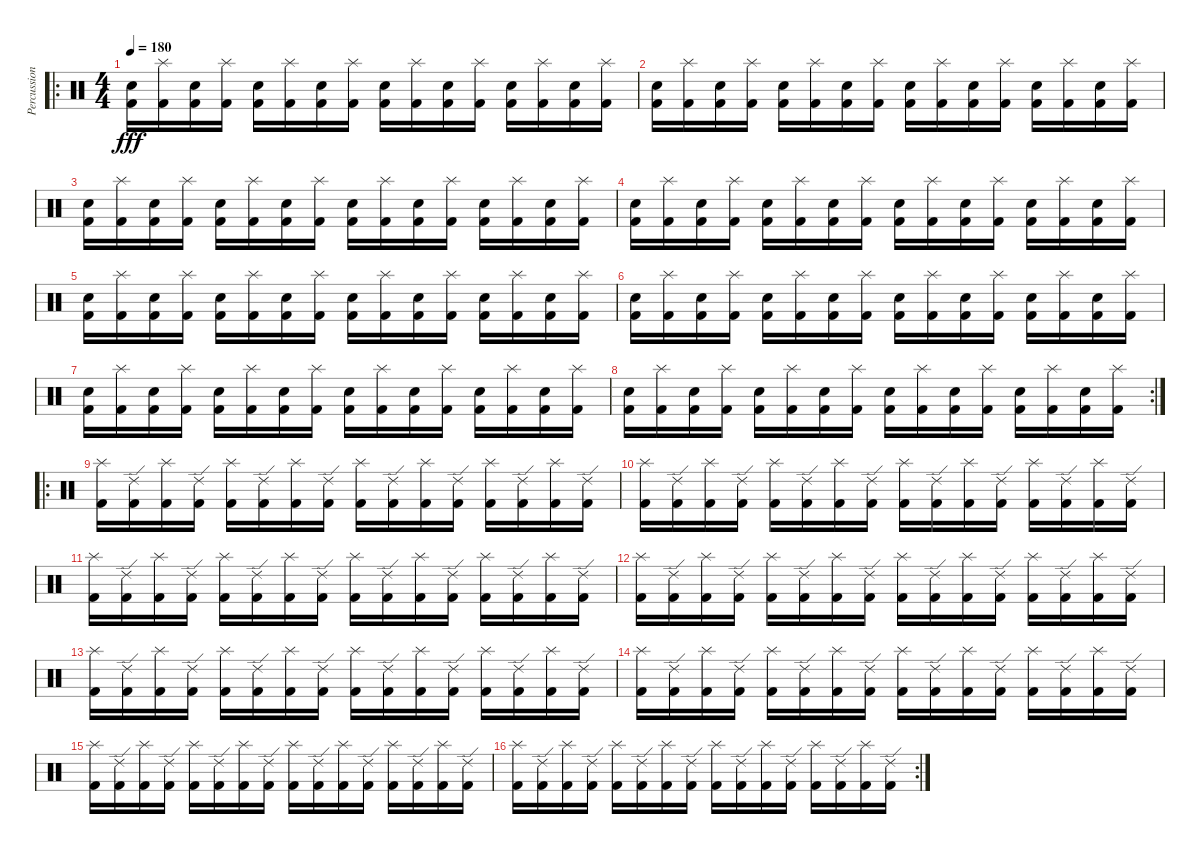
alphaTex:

\track ("Percussion" "Percussion") {instrument percussion}
\staff {score}
\articulation defaults
\ro
\ts (4 4)
\tempo 180
\clef neutral
\ks c
("Electric Snare (hit)" "Kick (hit) 2").16{dy fff} ("Splash (hit)" "Kick (hit) 2").16 ("Electric Snare (hit)" "Kick (hit) 2").16 ("Splash (hit)" "Kick (hit) 2").16 ("Electric Snare (hit)" "Kick (hit) 2").16 ("Splash (hit)" "Kick (hit) 2").16 ("Electric Snare (hit)" "Kick (hit) 2").16 ("Splash (hit)" "Kick (hit) 2").16 ("Electric Snare (hit)" "Kick (hit) 2").16 ("Splash (hit)" "Kick (hit) 2").16 ("Electric Snare (hit)" "Kick (hit) 2").16 ("Splash (hit)" "Kick (hit) 2").16 ("Electric Snare (hit)" "Kick (hit) 2").16 ("Splash (hit)" "Kick (hit) 2").16 ("Electric Snare (hit)" "Kick (hit) 2").16 ("Splash (hit)" "Kick (hit) 2").16 |
("Electric Snare (hit)" "Kick (hit) 2").16 ("Splash (hit)" "Kick (hit) 2").16 ("Electric Snare (hit)" "Kick (hit) 2").16 ("Splash (hit)" "Kick (hit) 2").16 ("Electric Snare (hit)" "Kick (hit) 2").16 ("Splash (hit)" "Kick (hit) 2").16 ("Electric Snare (hit)" "Kick (hit) 2").16 ("Splash (hit)" "Kick (hit) 2").16 ("Electric Snare (hit)" "Kick (hit) 2").16 ("Splash (hit)" "Kick (hit) 2").16 ("Electric Snare (hit)" "Kick (hit) 2").16 ("Splash (hit)" "Kick (hit) 2").16 ("Electric Snare (hit)" "Kick (hit) 2").16 ("Splash (hit)" "Kick (hit) 2").16 ("Electric Snare (hit)" "Kick (hit) 2").16 ("Splash (hit)" "Kick (hit) 2").16 |
("Electric Snare (hit)" "Kick (hit) 2").16 ("Splash (hit)" "Kick (hit) 2").16 ("Electric Snare (hit)" "Kick (hit) 2").16 ("Splash (hit)" "Kick (hit) 2").16 ("Electric Snare (hit)" "Kick (hit) 2").16 ("Splash (hit)" "Kick (hit) 2").16 ("Electric Snare (hit)" "Kick (hit) 2").16 ("Splash (hit)" "Kick (hit) 2").16 ("Electric Snare (hit)" "Kick (hit) 2").16 ("Splash (hit)" "Kick (hit) 2").16 ("Electric Snare (hit)" "Kick (hit) 2").16 ("Splash (hit)" "Kick (hit) 2").16 ("Electric Snare (hit)" "Kick (hit) 2").16 ("Splash (hit)" "Kick (hit) 2").16 ("Electric Snare (hit)" "Kick (hit) 2").16 ("Splash (hit)" "Kick (hit) 2").16 |
("Electric Snare (hit)" "Kick (hit) 2").16 ("Splash (hit)" "Kick (hit) 2").16 ("Electric Snare (hit)" "Kick (hit) 2").16 ("Splash (hit)" "Kick (hit) 2").16 ("Electric Snare (hit)" "Kick (hit) 2").16 ("Splash (hit)" "Kick (hit) 2").16 ("Electric Snare (hit)" "Kick (hit) 2").16 ("Splash (hit)" "Kick (hit) 2").16 ("Electric Snare (hit)" "Kick (hit) 2").16 ("Splash (hit)" "Kick (hit) 2").16 ("Electric Snare (hit)" "Kick (hit) 2").16 ("Splash (hit)" "Kick (hit) 2").16 ("Electric Snare (hit)" "Kick (hit) 2").16 ("Splash (hit)" "Kick (hit) 2").16 ("Electric Snare (hit)" "Kick (hit) 2").16 ("Splash (hit)" "Kick (hit) 2").16 |
("Electric Snare (hit)" "Kick (hit) 2").16 ("Splash (hit)" "Kick (hit) 2").16 ("Electric Snare (hit)" "Kick (hit) 2").16 ("Splash (hit)" "Kick (hit) 2").16 ("Electric Snare (hit)" "Kick (hit) 2").16 ("Splash (hit)" "Kick (hit) 2").16 ("Electric Snare (hit)" "Kick (hit) 2").16 ("Splash (hit)" "Kick (hit) 2").16 ("Electric Snare (hit)" "Kick (hit) 2").16 ("Splash (hit)" "Kick (hit) 2").16 ("Electric Snare (hit)" "Kick (hit) 2").16 ("Splash (hit)" "Kick (hit) 2").16 ("Electric Snare (hit)" "Kick (hit) 2").16 ("Splash (hit)" "Kick (hit) 2").16 ("Electric Snare (hit)" "Kick (hit) 2").16 ("Splash (hit)" "Kick (hit) 2").16 |
("Electric Snare (hit)" "Kick (hit) 2").16 ("Splash (hit)" "Kick (hit) 2").16 ("Electric Snare (hit)" "Kick (hit) 2").16 ("Splash (hit)" "Kick (hit) 2").16 ("Electric Snare (hit)" "Kick (hit) 2").16 ("Splash (hit)" "Kick (hit) 2").16 ("Electric Snare (hit)" "Kick (hit) 2").16 ("Splash (hit)" "Kick (hit) 2").16 ("Electric Snare (hit)" "Kick (hit) 2").16 ("Splash (hit)" "Kick (hit) 2").16 ("Electric Snare (hit)" "Kick (hit) 2").16 ("Splash (hit)" "Kick (hit) 2").16 ("Electric Snare (hit)" "Kick (hit) 2").16 ("Splash (hit)" "Kick (hit) 2").16 ("Electric Snare (hit)" "Kick (hit) 2").16 ("Splash (hit)" "Kick (hit) 2").16 |
("Electric Snare (hit)" "Kick (hit) 2").16 ("Splash (hit)" "Kick (hit) 2").16 ("Electric Snare (hit)" "Kick (hit) 2").16 ("Splash (hit)" "Kick (hit) 2").16 ("Electric Snare (hit)" "Kick (hit) 2").16 ("Splash (hit)" "Kick (hit) 2").16 ("Electric Snare (hit)" "Kick (hit) 2").16 ("Splash (hit)" "Kick (hit) 2").16 ("Electric Snare (hit)" "Kick (hit) 2").16 ("Splash (hit)" "Kick (hit) 2").16 ("Electric Snare (hit)" "Kick (hit) 2").16 ("Splash (hit)" "Kick (hit) 2").16 ("Electric Snare (hit)" "Kick (hit) 2").16 ("Splash (hit)" "Kick (hit) 2").16 ("Electric Snare (hit)" "Kick (hit) 2").16 ("Splash (hit)" "Kick (hit) 2").16 |
\rc 2
("Electric Snare (hit)" "Kick (hit) 2").16 ("Splash (hit)" "Kick (hit) 2").16 ("Electric Snare (hit)" "Kick (hit) 2").16 ("Splash (hit)" "Kick (hit) 2").16 ("Electric Snare (hit)" "Kick (hit) 2").16 ("Splash (hit)" "Kick (hit) 2").16 ("Electric Snare (hit)" "Kick (hit) 2").16 ("Splash (hit)" "Kick (hit) 2").16 ("Electric Snare (hit)" "Kick (hit) 2").16 ("Splash (hit)" "Kick (hit) 2").16 ("Electric Snare (hit)" "Kick (hit) 2").16 ("Splash (hit)" "Kick (hit) 2").16 ("Electric Snare (hit)" "Kick (hit) 2").16 ("Splash (hit)" "Kick (hit) 2").16 ("Electric Snare (hit)" "Kick (hit) 2").16 ("Splash (hit)" "Kick (hit) 2").16 |
\ro
("Splash (hit)" "Kick (hit) 2").16 ("Ride (edge) 2" "Kick (hit) 2").16 ("Splash (hit)" "Kick (hit) 2").16 ("Ride (edge) 2" "Kick (hit) 2").16 ("Splash (hit)" "Kick (hit) 2").16 ("Ride (edge) 2" "Kick (hit) 2").16 ("Splash (hit)" "Kick (hit) 2").16 ("Ride (edge) 2" "Kick (hit) 2").16 ("Splash (hit)" "Kick (hit) 2").16 ("Ride (edge) 2" "Kick (hit) 2").16 ("Splash (hit)" "Kick (hit) 2").16 ("Ride (edge) 2" "Kick (hit) 2").16 ("Splash (hit)" "Kick (hit) 2").16 ("Ride (edge) 2" "Kick (hit) 2").16 ("Splash (hit)" "Kick (hit) 2").16 ("Ride (edge) 2" "Kick (hit) 2").16 |
("Splash (hit)" "Kick (hit) 2").16 ("Ride (edge) 2" "Kick (hit) 2").16 ("Splash (hit)" "Kick (hit) 2").16 ("Ride (edge) 2" "Kick (hit) 2").16 ("Splash (hit)" "Kick (hit) 2").16 ("Ride (edge) 2" "Kick (hit) 2").16 ("Splash (hit)" "Kick (hit) 2").16 ("Ride (edge) 2" "Kick (hit) 2").16 ("Splash (hit)" "Kick (hit) 2").16 ("Ride (edge) 2" "Kick (hit) 2").16 ("Splash (hit)" "Kick (hit) 2").16 ("Ride (edge) 2" "Kick (hit) 2").16 ("Splash (hit)" "Kick (hit) 2").16 ("Ride (edge) 2" "Kick (hit) 2").16 ("Splash (hit)" "Kick (hit) 2").16 ("Ride (edge) 2" "Kick (hit) 2").16 |
("Splash (hit)" "Kick (hit) 2").16 ("Ride (edge) 2" "Kick (hit) 2").16 ("Splash (hit)" "Kick (hit) 2").16 ("Ride (edge) 2" "Kick (hit) 2").16 ("Splash (hit)" "Kick (hit) 2").16 ("Ride (edge) 2" "Kick (hit) 2").16 ("Splash (hit)" "Kick (hit) 2").16 ("Ride (edge) 2" "Kick (hit) 2").16 ("Splash (hit)" "Kick (hit) 2").16 ("Ride (edge) 2" "Kick (hit) 2").16 ("Splash (hit)" "Kick (hit) 2").16 ("Ride (edge) 2" "Kick (hit) 2").16 ("Splash (hit)" "Kick (hit) 2").16 ("Ride (edge) 2" "Kick (hit) 2").16 ("Splash (hit)" "Kick (hit) 2").16 ("Ride (edge) 2" "Kick (hit) 2").16 |
("Splash (hit)" "Kick (hit) 2").16 ("Ride (edge) 2" "Kick (hit) 2").16 ("Splash (hit)" "Kick (hit) 2").16 ("Ride (edge) 2" "Kick (hit) 2").16 ("Splash (hit)" "Kick (hit) 2").16 ("Ride (edge) 2" "Kick (hit) 2").16 ("Splash (hit)" "Kick (hit) 2").16 ("Ride (edge) 2" "Kick (hit) 2").16 ("Splash (hit)" "Kick (hit) 2").16 ("Ride (edge) 2" "Kick (hit) 2").16 ("Splash (hit)" "Kick (hit) 2").16 ("Ride (edge) 2" "Kick (hit) 2").16 ("Splash (hit)" "Kick (hit) 2").16 ("Ride (edge) 2" "Kick (hit) 2").16 ("Splash (hit)" "Kick (hit) 2").16 ("Ride (edge) 2" "Kick (hit) 2").16 |
("Splash (hit)" "Kick (hit) 2").16 ("Ride (edge) 2" "Kick (hit) 2").16 ("Splash (hit)" "Kick (hit) 2").16 ("Ride (edge) 2" "Kick (hit) 2").16 ("Splash (hit)" "Kick (hit) 2").16 ("Ride (edge) 2" "Kick (hit) 2").16 ("Splash (hit)" "Kick (hit) 2").16 ("Ride (edge) 2" "Kick (hit) 2").16 ("Splash (hit)" "Kick (hit) 2").16 ("Ride (edge) 2" "Kick (hit) 2").16 ("Splash (hit)" "Kick (hit) 2").16 ("Ride (edge) 2" "Kick (hit) 2").16 ("Splash (hit)" "Kick (hit) 2").16 ("Ride (edge) 2" "Kick (hit) 2").16 ("Splash (hit)" "Kick (hit) 2").16 ("Ride (edge) 2" "Kick (hit) 2").16 |
("Splash (hit)" "Kick (hit) 2").16 ("Ride (edge) 2" "Kick (hit) 2").16 ("Splash (hit)" "Kick (hit) 2").16 ("Ride (edge) 2" "Kick (hit) 2").16 ("Splash (hit)" "Kick (hit) 2").16 ("Ride (edge) 2" "Kick (hit) 2").16 ("Splash (hit)" "Kick (hit) 2").16 ("Ride (edge) 2" "Kick (hit) 2").16 ("Splash (hit)" "Kick (hit) 2").16 ("Ride (edge) 2" "Kick (hit) 2").16 ("Splash (hit)" "Kick (hit) 2").16 ("Ride (edge) 2" "Kick (hit) 2").16 ("Splash (hit)" "Kick (hit) 2").16 ("Ride (edge) 2" "Kick (hit) 2").16 ("Splash (hit)" "Kick (hit) 2").16 ("Ride (edge) 2" "Kick (hit) 2").16 |
("Splash (hit)" "Kick (hit) 2").16 ("Ride (edge) 2" "Kick (hit) 2").16 ("Splash (hit)" "Kick (hit) 2").16 ("Ride (edge) 2" "Kick (hit) 2").16 ("Splash (hit)" "Kick (hit) 2").16 ("Ride (edge) 2" "Kick (hit) 2").16 ("Splash (hit)" "Kick (hit) 2").16 ("Ride (edge) 2" "Kick (hit) 2").16 ("Splash (hit)" "Kick (hit) 2").16 ("Ride (edge) 2" "Kick (hit) 2").16 ("Splash (hit)" "Kick (hit) 2").16 ("Ride (edge) 2" "Kick (hit) 2").16 ("Splash (hit)" "Kick (hit) 2").16 ("Ride (edge) 2" "Kick (hit) 2").16 ("Splash (hit)" "Kick (hit) 2").16 ("Ride (edge) 2" "Kick (hit) 2").16 |
\rc 2
("Splash (hit)" "Kick (hit) 2").16 ("Ride (edge) 2" "Kick (hit) 2").16 ("Splash (hit)" "Kick (hit) 2").16 ("Ride (edge) 2" "Kick (hit) 2").16 ("Splash (hit)" "Kick (hit) 2").16 ("Ride (edge) 2" "Kick (hit) 2").16 ("Splash (hit)" "Kick (hit) 2").16 ("Ride (edge) 2" "Kick (hit) 2").16 ("Splash (hit)" "Kick (hit) 2").16 ("Ride (edge) 2" "Kick (hit) 2").16 ("Splash (hit)" "Kick (hit) 2").16 ("Ride (edge) 2" "Kick (hit) 2").16 ("Splash (hit)" "Kick (hit) 2").16 ("Ride (edge) 2" "Kick (hit) 2").16 ("Splash (hit)" "Kick (hit) 2").16 ("Ride (edge) 2" "Kick (hit) 2").16
